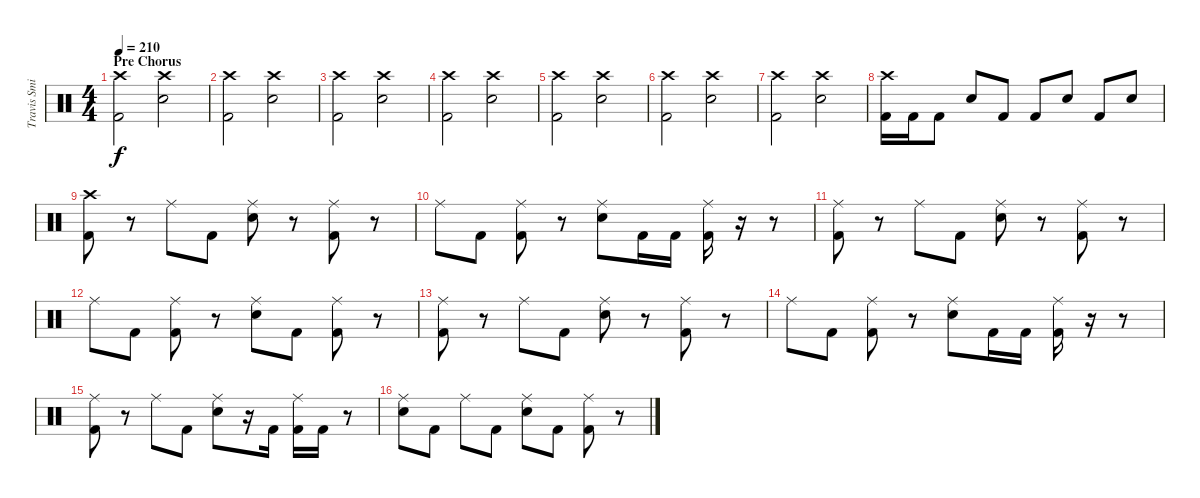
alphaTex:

\track ("Travis Smith" "Travis Smi") {instrument percussion}
\staff {score}
\articulation defaults
\ts (4 4)
\section ("" "Pre Chorus")
\tempo 210
\clef neutral
\ks c
("Crash high (hit)" "Kick (hit) 2").2{dy f} ("Crash high (hit)" "Electric Snare (hit)").2 |
("Crash high (hit)" "Kick (hit) 2").2 ("Crash high (hit)" "Electric Snare (hit)").2 |
("Crash high (hit)" "Kick (hit) 2").2 ("Crash high (hit)" "Electric Snare (hit)").2 |
("Crash high (hit)" "Kick (hit) 2").2 ("Crash high (hit)" "Electric Snare (hit)").2 |
("Crash high (hit)" "Kick (hit) 2").2 ("Crash high (hit)" "Electric Snare (hit)").2 |
("Crash high (hit)" "Kick (hit) 2").2 ("Crash high (hit)" "Electric Snare (hit)").2 |
("Crash high (hit)" "Kick (hit) 2").2 ("Crash high (hit)" "Electric Snare (hit)").2 |
("Crash high (hit)" "Kick (hit) 2").16 "Kick (hit) 2".16 "Kick (hit) 2".8 "Electric Snare (hit)".8 "Kick (hit) 2".8 "Kick (hit) 2".8 "Electric Snare (hit)".8 "Kick (hit) 2".8 "Electric Snare (hit)".8 |
("Crash high (hit)" "Kick (hit) 2").8 r.8 "Ride (middle)".8 "Kick (hit) 2".8 ("Ride (middle)" "Electric Snare (hit)").8 r.8 ("Ride (middle)" "Kick (hit) 2").8 r.8 |
"Ride (middle)".8 "Kick (hit) 2".8 ("Ride (middle)" "Kick (hit) 2").8 r.8 ("Ride (middle)" "Electric Snare (hit)").8 "Kick (hit) 2".16 "Kick (hit) 2".16 ("Ride (middle)" "Kick (hit) 2").16 r.16 r.8 |
("Ride (middle)" "Kick (hit) 2").8 r.8 "Ride (middle)".8 "Kick (hit) 2".8 ("Ride (middle)" "Electric Snare (hit)").8 r.8 ("Ride (middle)" "Kick (hit) 2").8 r.8 |
"Ride (middle)".8 "Kick (hit) 2".8 ("Ride (middle)" "Kick (hit) 2").8 r.8 ("Ride (middle)" "Electric Snare (hit)").8 "Kick (hit) 2".8 ("Ride (middle)" "Kick (hit) 2").8 r.8 |
("Ride (middle)" "Kick (hit) 2").8 r.8 "Ride (middle)".8 "Kick (hit) 2".8 ("Ride (middle)" "Electric Snare (hit)").8 r.8 ("Ride (middle)" "Kick (hit) 2").8 r.8 |
"Ride (middle)".8 "Kick (hit) 2".8 ("Ride (middle)" "Kick (hit) 2").8 r.8 ("Ride (middle)" "Electric Snare (hit)").8 "Kick (hit) 2".16 "Kick (hit) 2".16 ("Ride (middle)" "Kick (hit) 2").16 r.16 r.8 |
("Ride (middle)" "Kick (hit) 2").8 r.8 "Ride (middle)".8 "Kick (hit) 2".8 ("Ride (middle)" "Electric Snare (hit)").8 r.16 "Kick (hit) 2".16 ("Ride (middle)" "Kick (hit) 2").16 "Kick (hit) 2".16 r.8 |
("Ride (middle)" "Electric Snare (hit)").8 "Kick (hit) 2".8 "Ride (middle)".8 "Kick (hit) 2".8 ("Ride (middle)" "Electric Snare (hit)").8 "Kick (hit) 2".8 ("Ride (middle)" "Kick (hit) 2").8 r.8
